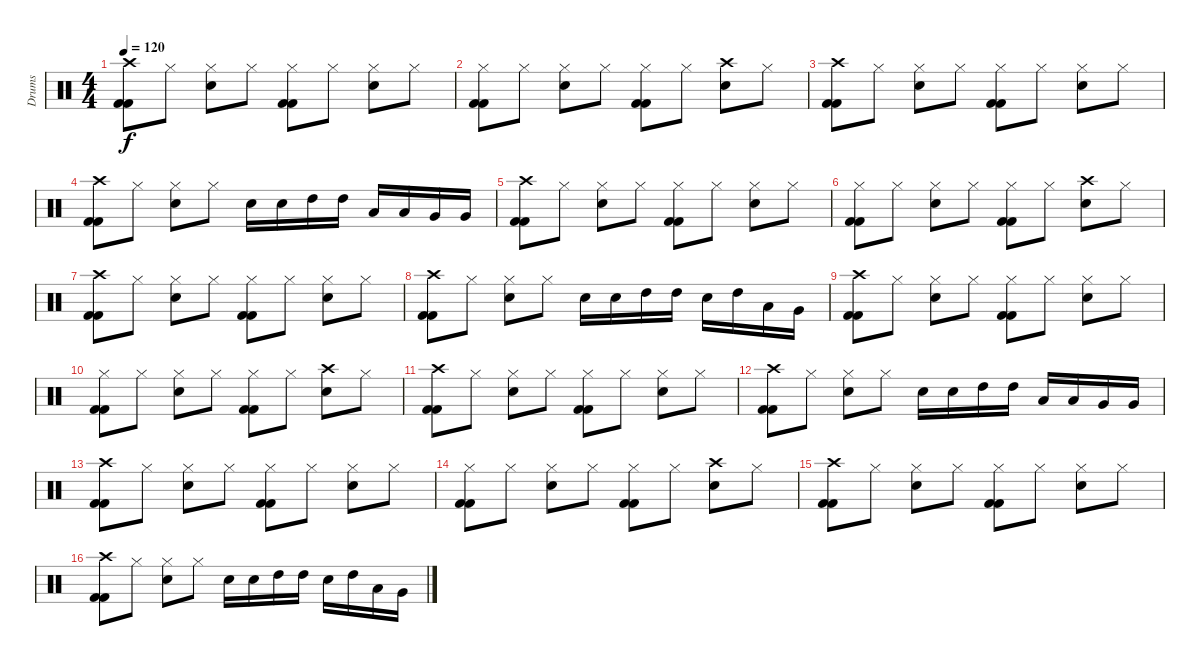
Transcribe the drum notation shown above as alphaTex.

\track ("Drums" "Drums") {instrument percussion}
\staff {score}
\articulation defaults
\ts (4 4)
\tempo 120
\clef neutral
\ks c
("Crash high (hit)" "Kick (hit) 2" "Kick (hit) 2").8{dy f} "Hi-Hat (closed)".8 ("Electric Snare (hit)" "Hi-Hat (closed)").8 "Hi-Hat (closed)".8 ("Kick (hit) 2" "Kick (hit) 2" "Hi-Hat (closed)").8 "Hi-Hat (closed)".8 ("Hi-Hat (closed)" "Electric Snare (hit)").8 "Hi-Hat (closed)".8 |
("Hi-Hat (closed)" "Kick (hit) 2" "Kick (hit) 2").8 "Hi-Hat (closed)".8 ("Electric Snare (hit)" "Hi-Hat (closed)").8 "Hi-Hat (closed)".8 ("Kick (hit) 2" "Kick (hit) 2" "Hi-Hat (closed)").8 "Hi-Hat (closed)".8 ("Crash high (hit)" "Electric Snare (hit)").8 "Hi-Hat (closed)".8 |
("Crash high (hit)" "Kick (hit) 2" "Kick (hit) 2").8 "Hi-Hat (closed)".8 ("Electric Snare (hit)" "Hi-Hat (closed)").8 "Hi-Hat (closed)".8 ("Kick (hit) 2" "Kick (hit) 2" "Hi-Hat (closed)").8 "Hi-Hat (closed)".8 ("Hi-Hat (closed)" "Electric Snare (hit)").8 "Hi-Hat (closed)".8 |
("Crash high (hit)" "Kick (hit) 2" "Kick (hit) 2").8 "Hi-Hat (closed)".8 ("Electric Snare (hit)" "Hi-Hat (closed)").8 "Hi-Hat (closed)".8 "Electric Snare (hit)".16 "Electric Snare (hit)".16 "High Tom (hit)".16 "High Tom (hit)".16 "Low Tom (hit)".16 "Low Tom (hit)".16 "Very Low Tom (hit)".16 "Very Low Tom (hit)".16 |
("Crash high (hit)" "Kick (hit) 2" "Kick (hit) 2").8 "Hi-Hat (closed)".8 ("Electric Snare (hit)" "Hi-Hat (closed)").8 "Hi-Hat (closed)".8 ("Kick (hit) 2" "Kick (hit) 2" "Hi-Hat (closed)").8 "Hi-Hat (closed)".8 ("Hi-Hat (closed)" "Electric Snare (hit)").8 "Hi-Hat (closed)".8 |
("Hi-Hat (closed)" "Kick (hit) 2" "Kick (hit) 2").8 "Hi-Hat (closed)".8 ("Electric Snare (hit)" "Hi-Hat (closed)").8 "Hi-Hat (closed)".8 ("Kick (hit) 2" "Kick (hit) 2" "Hi-Hat (closed)").8 "Hi-Hat (closed)".8 ("Crash high (hit)" "Electric Snare (hit)").8 "Hi-Hat (closed)".8 |
("Crash high (hit)" "Kick (hit) 2" "Kick (hit) 2").8 "Hi-Hat (closed)".8 ("Electric Snare (hit)" "Hi-Hat (closed)").8 "Hi-Hat (closed)".8 ("Kick (hit) 2" "Kick (hit) 2" "Hi-Hat (closed)").8 "Hi-Hat (closed)".8 ("Hi-Hat (closed)" "Electric Snare (hit)").8 "Hi-Hat (closed)".8 |
("Crash high (hit)" "Kick (hit) 2" "Kick (hit) 2").8 "Hi-Hat (closed)".8 ("Electric Snare (hit)" "Hi-Hat (closed)").8 "Hi-Hat (closed)".8 "Electric Snare (hit)".16 "Electric Snare (hit)".16 "High Tom (hit)".16 "High Tom (hit)".16 "Electric Snare (hit)".16 "High Tom (hit)".16 "Low Tom (hit)".16 "Very Low Tom (hit)".16 |
("Crash high (hit)" "Kick (hit) 2" "Kick (hit) 2").8 "Hi-Hat (closed)".8 ("Electric Snare (hit)" "Hi-Hat (closed)").8 "Hi-Hat (closed)".8 ("Kick (hit) 2" "Kick (hit) 2" "Hi-Hat (closed)").8 "Hi-Hat (closed)".8 ("Hi-Hat (closed)" "Electric Snare (hit)").8 "Hi-Hat (closed)".8 |
("Hi-Hat (closed)" "Kick (hit) 2" "Kick (hit) 2").8 "Hi-Hat (closed)".8 ("Electric Snare (hit)" "Hi-Hat (closed)").8 "Hi-Hat (closed)".8 ("Kick (hit) 2" "Kick (hit) 2" "Hi-Hat (closed)").8 "Hi-Hat (closed)".8 ("Crash high (hit)" "Electric Snare (hit)").8 "Hi-Hat (closed)".8 |
("Crash high (hit)" "Kick (hit) 2" "Kick (hit) 2").8 "Hi-Hat (closed)".8 ("Electric Snare (hit)" "Hi-Hat (closed)").8 "Hi-Hat (closed)".8 ("Kick (hit) 2" "Kick (hit) 2" "Hi-Hat (closed)").8 "Hi-Hat (closed)".8 ("Hi-Hat (closed)" "Electric Snare (hit)").8 "Hi-Hat (closed)".8 |
("Crash high (hit)" "Kick (hit) 2" "Kick (hit) 2").8 "Hi-Hat (closed)".8 ("Electric Snare (hit)" "Hi-Hat (closed)").8 "Hi-Hat (closed)".8 "Electric Snare (hit)".16 "Electric Snare (hit)".16 "High Tom (hit)".16 "High Tom (hit)".16 "Low Tom (hit)".16 "Low Tom (hit)".16 "Very Low Tom (hit)".16 "Very Low Tom (hit)".16 |
("Crash high (hit)" "Kick (hit) 2" "Kick (hit) 2").8 "Hi-Hat (closed)".8 ("Electric Snare (hit)" "Hi-Hat (closed)").8 "Hi-Hat (closed)".8 ("Kick (hit) 2" "Kick (hit) 2" "Hi-Hat (closed)").8 "Hi-Hat (closed)".8 ("Hi-Hat (closed)" "Electric Snare (hit)").8 "Hi-Hat (closed)".8 |
("Hi-Hat (closed)" "Kick (hit) 2" "Kick (hit) 2").8 "Hi-Hat (closed)".8 ("Electric Snare (hit)" "Hi-Hat (closed)").8 "Hi-Hat (closed)".8 ("Kick (hit) 2" "Kick (hit) 2" "Hi-Hat (closed)").8 "Hi-Hat (closed)".8 ("Crash high (hit)" "Electric Snare (hit)").8 "Hi-Hat (closed)".8 |
("Crash high (hit)" "Kick (hit) 2" "Kick (hit) 2").8 "Hi-Hat (closed)".8 ("Electric Snare (hit)" "Hi-Hat (closed)").8 "Hi-Hat (closed)".8 ("Kick (hit) 2" "Kick (hit) 2" "Hi-Hat (closed)").8 "Hi-Hat (closed)".8 ("Hi-Hat (closed)" "Electric Snare (hit)").8 "Hi-Hat (closed)".8 |
("Crash high (hit)" "Kick (hit) 2" "Kick (hit) 2").8 "Hi-Hat (closed)".8 ("Electric Snare (hit)" "Hi-Hat (closed)").8 "Hi-Hat (closed)".8 "Electric Snare (hit)".16 "Electric Snare (hit)".16 "High Tom (hit)".16 "High Tom (hit)".16 "Electric Snare (hit)".16 "High Tom (hit)".16 "Low Tom (hit)".16 "Very Low Tom (hit)".16
